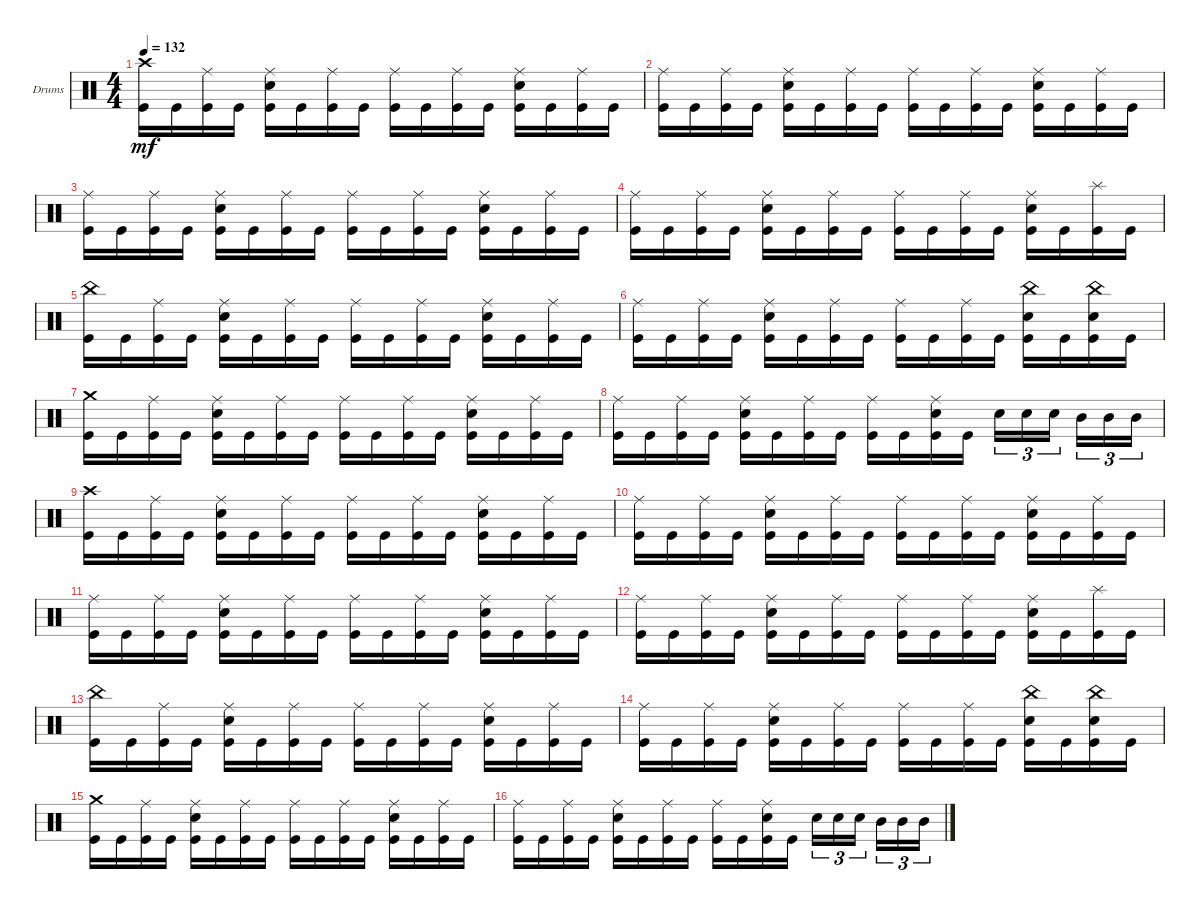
\defaultSystemsLayout 4
\bracketExtendMode groupsimilarinstruments
\firstSystemTrackNameOrientation horizontal
\otherSystemsTrackNameOrientation horizontal
\track ("Drumkit" "Drums") {instrument percussion}
\staff {score}
\articulation defaults
\ts (4 4)
\tempo 132
\clef neutral
\scale
0.333333
\ks c
("Kick (hit)" "Crash high (hit)").16{dy mf} "Kick (hit)".16 ("Kick (hit)" "Ride (middle)").16 "Kick (hit)".16 ("Kick (hit)" "Snare (hit) 2" "Ride (middle)").16 "Kick (hit)".16 ("Kick (hit)" "Ride (middle)").16 "Kick (hit)".16 ("Kick (hit)" "Ride (middle)").16 "Kick (hit)".16 ("Kick (hit)" "Ride (middle)").16 "Kick (hit)".16 ("Kick (hit)" "Snare (hit) 2" "Ride (middle)").16 "Kick (hit)".16 ("Kick (hit)" "Ride (middle)").16 "Kick (hit)".16 |
\scale
0.333333 ("Kick (hit)" "Ride (middle)").16 "Kick (hit)".16 ("Kick (hit)" "Ride (middle)").16 "Kick (hit)".16 ("Kick (hit)" "Snare (hit) 2" "Ride (middle)").16 "Kick (hit)".16 ("Kick (hit)" "Ride (middle)").16 "Kick (hit)".16 ("Kick (hit)" "Ride (middle)").16 "Kick (hit)".16 ("Kick (hit)" "Ride (middle)").16 "Kick (hit)".16 ("Kick (hit)" "Snare (hit) 2" "Ride (middle)").16 "Kick (hit)".16 ("Kick (hit)" "Ride (middle)").16 "Kick (hit)".16 |
\scale
0.333333 ("Kick (hit)" "Ride (middle)").16 "Kick (hit)".16 ("Kick (hit)" "Ride (middle)").16 "Kick (hit)".16 ("Kick (hit)" "Snare (hit) 2" "Ride (middle)").16 "Kick (hit)".16 ("Kick (hit)" "Ride (middle)").16 "Kick (hit)".16 ("Kick (hit)" "Ride (middle)").16 "Kick (hit)".16 ("Kick (hit)" "Ride (middle)").16 "Kick (hit)".16 ("Kick (hit)" "Snare (hit) 2" "Ride (middle)").16 "Kick (hit)".16 ("Kick (hit)" "Ride (middle)").16 "Kick (hit)".16 |
\scale
0.333333 ("Kick (hit)" "Ride (middle)").16 "Kick (hit)".16 ("Kick (hit)" "Ride (middle)").16 "Kick (hit)".16 ("Kick (hit)" "Snare (hit) 2" "Ride (middle)").16 "Kick (hit)".16 ("Kick (hit)" "Ride (middle)").16 "Kick (hit)".16 ("Kick (hit)" "Ride (middle)").16 "Kick (hit)".16 ("Kick (hit)" "Ride (middle)").16 "Kick (hit)".16 ("Kick (hit)" "Snare (hit) 2" "Ride (middle)").16 "Kick (hit)".16 ("Kick (hit)" "Splash (hit)").16 "Kick (hit)".16 |
\scale
0.333333 ("Kick (hit)" "China (hit)").16 "Kick (hit)".16 ("Kick (hit)" "Ride (middle)").16 "Kick (hit)".16 ("Kick (hit)" "Snare (hit) 2" "Ride (middle)").16 "Kick (hit)".16 ("Kick (hit)" "Ride (middle)").16 "Kick (hit)".16 ("Kick (hit)" "Ride (middle)").16 "Kick (hit)".16 ("Kick (hit)" "Ride (middle)").16 "Kick (hit)".16 ("Kick (hit)" "Snare (hit) 2" "Ride (middle)").16 "Kick (hit)".16 ("Kick (hit)" "Ride (middle)").16 "Kick (hit)".16 |
\scale
0.333333 ("Kick (hit)" "Ride (middle)").16 "Kick (hit)".16 ("Kick (hit)" "Ride (middle)").16 "Kick (hit)".16 ("Kick (hit)" "Snare (hit) 2" "Ride (middle)").16 "Kick (hit)".16 ("Kick (hit)" "Ride (middle)").16 "Kick (hit)".16 ("Kick (hit)" "Ride (middle)").16 "Kick (hit)".16 ("Kick (hit)" "Ride (middle)").16 "Kick (hit)".16 ("Kick (hit)" "Snare (hit) 2" "China (hit)").16 "Kick (hit)".16 ("Kick (hit)" "Snare (hit) 2" "China (hit)").16 "Kick (hit)".16 |
\scale
0.333333 ("Kick (hit)" "Crash medium (hit)").16 "Kick (hit)".16 ("Kick (hit)" "Ride (middle)").16 "Kick (hit)".16 ("Kick (hit)" "Snare (hit) 2" "Ride (middle)").16 "Kick (hit)".16 ("Kick (hit)" "Ride (middle)").16 "Kick (hit)".16 ("Kick (hit)" "Ride (middle)").16 "Kick (hit)".16 ("Kick (hit)" "Ride (middle)").16 "Kick (hit)".16 ("Kick (hit)" "Snare (hit) 2" "Ride (middle)").16 "Kick (hit)".16 ("Kick (hit)" "Ride (middle)").16 "Kick (hit)".16 |
\scale
0.333333 ("Kick (hit)" "Ride (middle)").16 "Kick (hit)".16 ("Kick (hit)" "Ride (middle)").16 "Kick (hit)".16 ("Kick (hit)" "Snare (hit) 2" "Ride (middle)").16 "Kick (hit)".16 ("Kick (hit)" "Ride (middle)").16 "Kick (hit)".16 ("Kick (hit)" "Ride (middle)").16 "Kick (hit)".16 ("Kick (hit)" "Ride (middle)" "Snare (hit) 2").16 "Kick (hit)".16 "Snare (hit) 2".16{tu (3 2)} "Snare (hit) 2".16{tu (3 2)} "Snare (hit) 2".16{tu (3 2)} "Mid Tom (hit)".16{tu (3 2)} "Mid Tom (hit)".16{tu (3 2)} "Mid Tom (hit)".16{tu (3 2)} |
\scale
0.333333 ("Kick (hit)" "Crash high (hit)").16 "Kick (hit)".16 ("Kick (hit)" "Ride (middle)").16 "Kick (hit)".16 ("Kick (hit)" "Snare (hit) 2" "Ride (middle)").16 "Kick (hit)".16 ("Kick (hit)" "Ride (middle)").16 "Kick (hit)".16 ("Kick (hit)" "Ride (middle)").16 "Kick (hit)".16 ("Kick (hit)" "Ride (middle)").16 "Kick (hit)".16 ("Kick (hit)" "Snare (hit) 2" "Ride (middle)").16 "Kick (hit)".16 ("Kick (hit)" "Ride (middle)").16 "Kick (hit)".16 |
\scale
0.333333 ("Kick (hit)" "Ride (middle)").16 "Kick (hit)".16 ("Kick (hit)" "Ride (middle)").16 "Kick (hit)".16 ("Kick (hit)" "Snare (hit) 2" "Ride (middle)").16 "Kick (hit)".16 ("Kick (hit)" "Ride (middle)").16 "Kick (hit)".16 ("Kick (hit)" "Ride (middle)").16 "Kick (hit)".16 ("Kick (hit)" "Ride (middle)").16 "Kick (hit)".16 ("Kick (hit)" "Snare (hit) 2" "Ride (middle)").16 "Kick (hit)".16 ("Kick (hit)" "Ride (middle)").16 "Kick (hit)".16 |
\scale
0.333333 ("Kick (hit)" "Ride (middle)").16 "Kick (hit)".16 ("Kick (hit)" "Ride (middle)").16 "Kick (hit)".16 ("Kick (hit)" "Snare (hit) 2" "Ride (middle)").16 "Kick (hit)".16 ("Kick (hit)" "Ride (middle)").16 "Kick (hit)".16 ("Kick (hit)" "Ride (middle)").16 "Kick (hit)".16 ("Kick (hit)" "Ride (middle)").16 "Kick (hit)".16 ("Kick (hit)" "Snare (hit) 2" "Ride (middle)").16 "Kick (hit)".16 ("Kick (hit)" "Ride (middle)").16 "Kick (hit)".16 |
\scale
0.333333 ("Kick (hit)" "Ride (middle)").16 "Kick (hit)".16 ("Kick (hit)" "Ride (middle)").16 "Kick (hit)".16 ("Kick (hit)" "Snare (hit) 2" "Ride (middle)").16 "Kick (hit)".16 ("Kick (hit)" "Ride (middle)").16 "Kick (hit)".16 ("Kick (hit)" "Ride (middle)").16 "Kick (hit)".16 ("Kick (hit)" "Ride (middle)").16 "Kick (hit)".16 ("Kick (hit)" "Snare (hit) 2" "Ride (middle)").16 "Kick (hit)".16 ("Kick (hit)" "Splash (hit)").16 "Kick (hit)".16 |
\scale
0.333333 ("Kick (hit)" "China (hit)").16 "Kick (hit)".16 ("Kick (hit)" "Ride (middle)").16 "Kick (hit)".16 ("Kick (hit)" "Snare (hit) 2" "Ride (middle)").16 "Kick (hit)".16 ("Kick (hit)" "Ride (middle)").16 "Kick (hit)".16 ("Kick (hit)" "Ride (middle)").16 "Kick (hit)".16 ("Kick (hit)" "Ride (middle)").16 "Kick (hit)".16 ("Kick (hit)" "Snare (hit) 2" "Ride (middle)").16 "Kick (hit)".16 ("Kick (hit)" "Ride (middle)").16 "Kick (hit)".16 |
\scale
0.333333 ("Kick (hit)" "Ride (middle)").16 "Kick (hit)".16 ("Kick (hit)" "Ride (middle)").16 "Kick (hit)".16 ("Kick (hit)" "Snare (hit) 2" "Ride (middle)").16 "Kick (hit)".16 ("Kick (hit)" "Ride (middle)").16 "Kick (hit)".16 ("Kick (hit)" "Ride (middle)").16 "Kick (hit)".16 ("Kick (hit)" "Ride (middle)").16 "Kick (hit)".16 ("Kick (hit)" "Snare (hit) 2" "China (hit)").16 "Kick (hit)".16 ("Kick (hit)" "Snare (hit) 2" "China (hit)").16 "Kick (hit)".16 |
\scale
0.333333 ("Kick (hit)" "Crash medium (hit)").16 "Kick (hit)".16 ("Kick (hit)" "Ride (middle)").16 "Kick (hit)".16 ("Kick (hit)" "Snare (hit) 2" "Ride (middle)").16 "Kick (hit)".16 ("Kick (hit)" "Ride (middle)").16 "Kick (hit)".16 ("Kick (hit)" "Ride (middle)").16 "Kick (hit)".16 ("Kick (hit)" "Ride (middle)").16 "Kick (hit)".16 ("Kick (hit)" "Snare (hit) 2" "Ride (middle)").16 "Kick (hit)".16 ("Kick (hit)" "Ride (middle)").16 "Kick (hit)".16 |
\scale
0.333333 ("Kick (hit)" "Ride (middle)").16 "Kick (hit)".16 ("Kick (hit)" "Ride (middle)").16 "Kick (hit)".16 ("Kick (hit)" "Snare (hit) 2" "Ride (middle)").16 "Kick (hit)".16 ("Kick (hit)" "Ride (middle)").16 "Kick (hit)".16 ("Kick (hit)" "Ride (middle)").16 "Kick (hit)".16 ("Kick (hit)" "Ride (middle)" "Snare (hit) 2").16 "Kick (hit)".16 "Snare (hit) 2".16{tu (3 2)} "Snare (hit) 2".16{tu (3 2)} "Snare (hit) 2".16{tu (3 2)} "Mid Tom (hit)".16{tu (3 2)} "Mid Tom (hit)".16{tu (3 2)} "Mid Tom (hit)".16{tu (3 2)}
